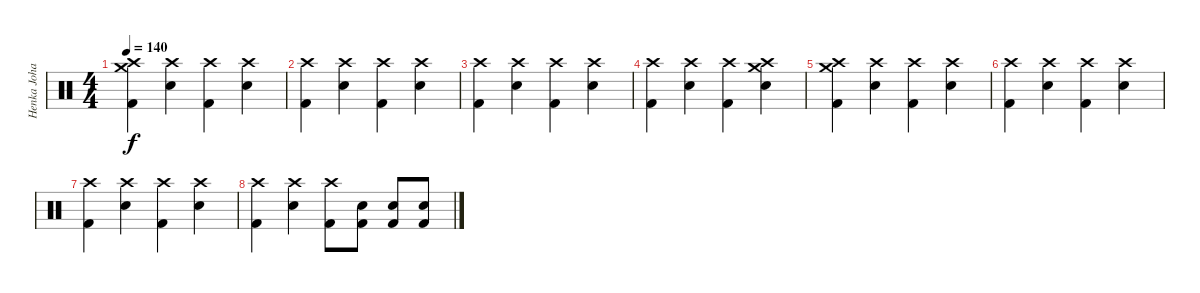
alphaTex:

\track ("Henka Johannson " "Henka Joha") {instrument percussion}
\staff {score}
\articulation defaults
\ts (4 4)
\tempo 140
\clef neutral
\ks c
("Crash medium (hit)" "Crash high (hit)" "Kick (hit) 2").4{dy f} ("Crash high (hit)" "Electric Snare (hit)").4 ("Crash high (hit)" "Kick (hit) 2").4 ("Crash high (hit)" "Electric Snare (hit)").4 |
("Crash high (hit)" "Kick (hit) 2").4 ("Crash high (hit)" "Electric Snare (hit)").4 ("Crash high (hit)" "Kick (hit) 2").4 ("Crash high (hit)" "Electric Snare (hit)").4 |
("Crash high (hit)" "Kick (hit) 2").4 ("Crash high (hit)" "Electric Snare (hit)").4 ("Crash high (hit)" "Kick (hit) 2").4 ("Crash high (hit)" "Electric Snare (hit)").4 |
("Crash high (hit)" "Kick (hit) 2").4 ("Crash high (hit)" "Electric Snare (hit)").4 ("Crash high (hit)" "Kick (hit) 2").4 ("Crash medium (hit)" "Crash high (hit)" "Electric Snare (hit)").4 |
("Crash medium (hit)" "Crash high (hit)" "Kick (hit) 2").4 ("Crash high (hit)" "Electric Snare (hit)").4 ("Crash high (hit)" "Kick (hit) 2").4 ("Crash high (hit)" "Electric Snare (hit)").4 |
("Crash high (hit)" "Kick (hit) 2").4 ("Crash high (hit)" "Electric Snare (hit)").4 ("Crash high (hit)" "Kick (hit) 2").4 ("Crash high (hit)" "Electric Snare (hit)").4 |
("Crash high (hit)" "Kick (hit) 2").4 ("Crash high (hit)" "Electric Snare (hit)").4 ("Crash high (hit)" "Kick (hit) 2").4 ("Crash high (hit)" "Electric Snare (hit)").4 |
("Crash high (hit)" "Kick (hit) 2").4 ("Crash high (hit)" "Electric Snare (hit)").4 ("Crash high (hit)" "Kick (hit) 2").8 ("Electric Snare (hit)" "Kick (hit) 2").8 ("Electric Snare (hit)" "Kick (hit) 2").8 ("Electric Snare (hit)" "Kick (hit) 2").8
